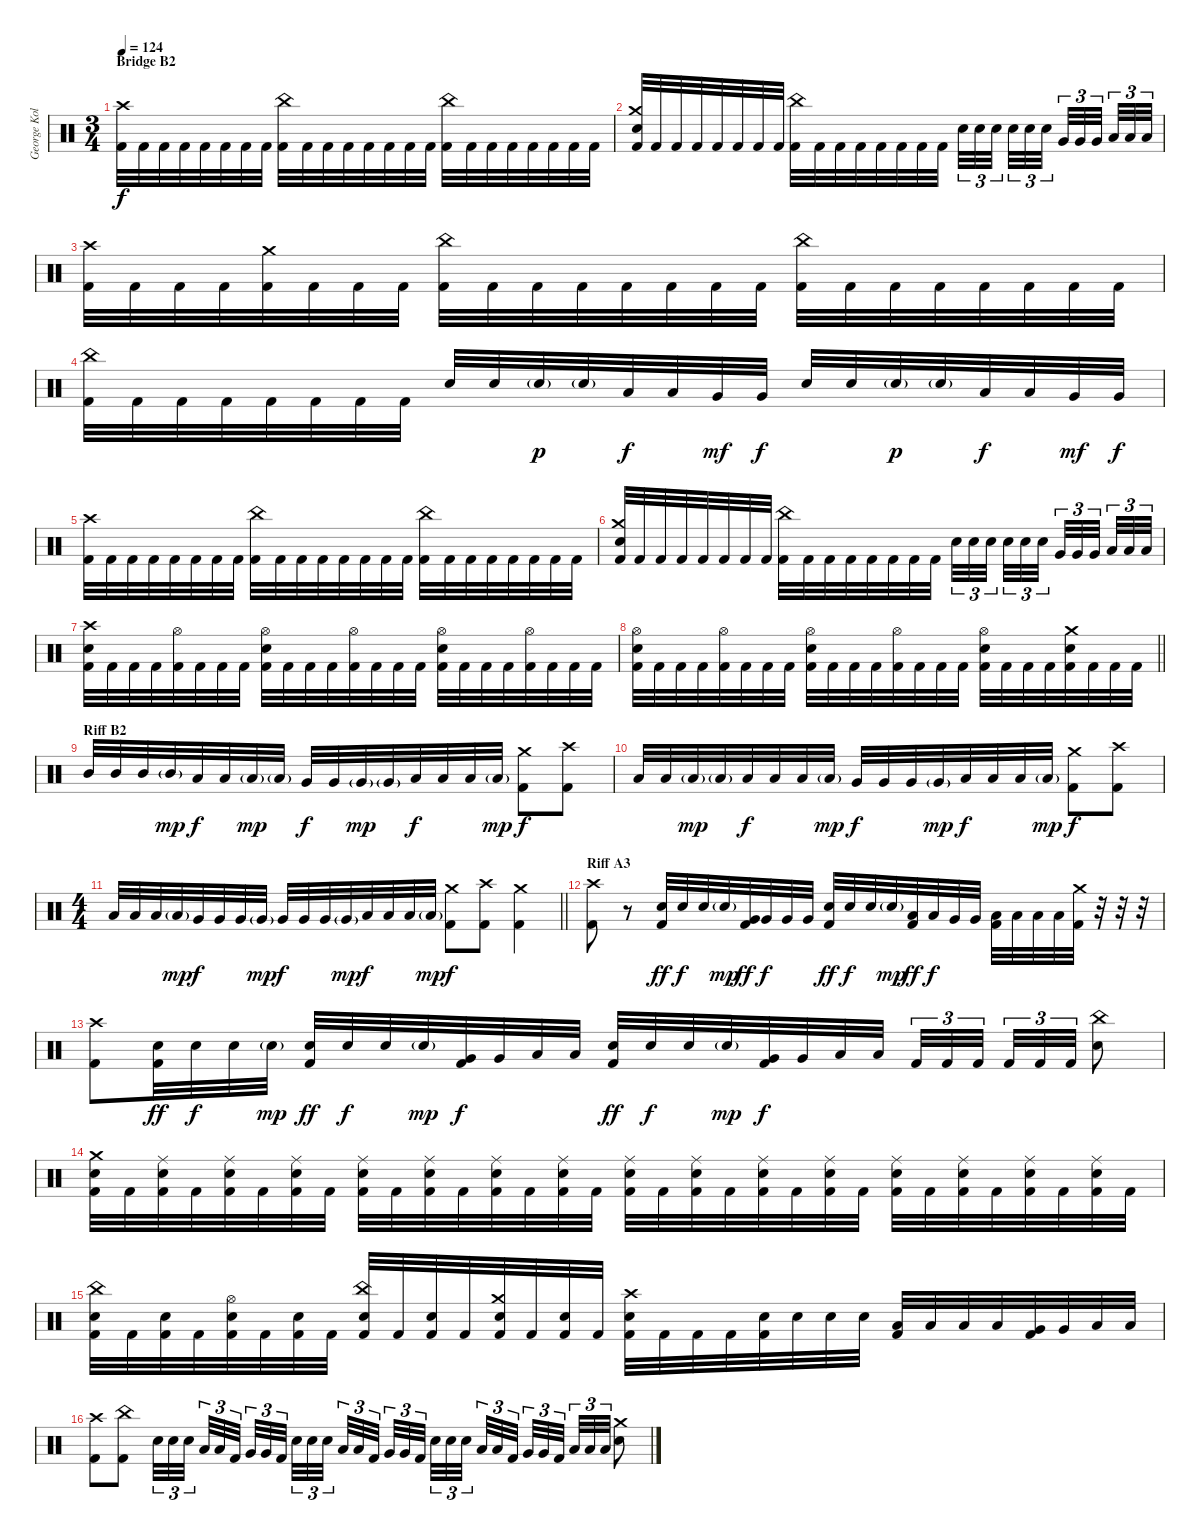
\track ("George Kollias" "George Kol") {instrument percussion}
\staff {score}
\articulation defaults
\ts (3 4)
\section ("" "Bridge B2")
\tempo 124
\clef neutral
\ks c
("Crash high (hit)" "Kick (hit) 2").32{dy f} "Kick (hit) 2".32 "Kick (hit) 2".32 "Kick (hit) 2".32 "Kick (hit) 2".32 "Kick (hit) 2".32 "Kick (hit) 2".32 "Kick (hit) 2".32 ("China (hit)" "Kick (hit) 2").32 "Kick (hit) 2".32 "Kick (hit) 2".32 "Kick (hit) 2".32 "Kick (hit) 2".32 "Kick (hit) 2".32 "Kick (hit) 2".32 "Kick (hit) 2".32 ("China (hit)" "Kick (hit) 2").32 "Kick (hit) 2".32 "Kick (hit) 2".32 "Kick (hit) 2".32 "Kick (hit) 2".32 "Kick (hit) 2".32 "Kick (hit) 2".32 "Kick (hit) 2".32 |
("Crash medium (hit)" "Electric Snare (hit)" "Kick (hit) 2").32 "Kick (hit) 2".32 "Kick (hit) 2".32 "Kick (hit) 2".32 "Kick (hit) 2".32 "Kick (hit) 2".32 "Kick (hit) 2".32 "Kick (hit) 2".32 ("China (hit)" "Kick (hit) 2").32 "Kick (hit) 2".32 "Kick (hit) 2".32 "Kick (hit) 2".32 "Kick (hit) 2".32 "Kick (hit) 2".32 "Kick (hit) 2".32 "Kick (hit) 2".32 "Electric Snare (hit)".32{tu (3 2)} "Electric Snare (hit)".32{tu (3 2)} "Electric Snare (hit)".32{tu (3 2) beam splitsecondary} "Electric Snare (hit)".32{tu (3 2)} "Electric Snare (hit)".32{tu (3 2)} "Electric Snare (hit)".32{tu (3 2) beam splitsecondary} "Very Low Tom (hit)".32{tu (3 2)} "Very Low Tom (hit)".32{tu (3 2)} "Very Low Tom (hit)".32{tu (3 2) beam splitsecondary} "Low Floor Tom (hit)".32{tu (3 2)} "Low Floor Tom (hit)".32{tu (3 2)} "Low Floor Tom (hit)".32{tu (3 2)} |
("Crash high (hit)" "Kick (hit) 2").32 "Kick (hit) 2".32 "Kick (hit) 2".32 "Kick (hit) 2".32 ("Crash medium (hit)" "Kick (hit) 2").32 "Kick (hit) 2".32 "Kick (hit) 2".32 "Kick (hit) 2".32 ("China (hit)" "Kick (hit) 2").32 "Kick (hit) 2".32 "Kick (hit) 2".32 "Kick (hit) 2".32 "Kick (hit) 2".32 "Kick (hit) 2".32 "Kick (hit) 2".32 "Kick (hit) 2".32 ("China (hit)" "Kick (hit) 2").32 "Kick (hit) 2".32 "Kick (hit) 2".32 "Kick (hit) 2".32 "Kick (hit) 2".32 "Kick (hit) 2".32 "Kick (hit) 2".32 "Kick (hit) 2".32 |
("China (hit)" "Kick (hit) 2").32 "Kick (hit) 2".32 "Kick (hit) 2".32 "Kick (hit) 2".32 "Kick (hit) 2".32 "Kick (hit) 2".32 "Kick (hit) 2".32 "Kick (hit) 2".32 "Electric Snare (hit)".32 "Electric Snare (hit)".32 "Electric Snare (hit)"{g}.32{dy p} "Electric Snare (hit)"{g}.32 "Low Tom (hit)".32{dy f} "Low Tom (hit)".32 "Very Low Tom (hit)".32{dy mf} "Very Low Tom (hit)".32{dy f} "Electric Snare (hit)".32 "Electric Snare (hit)".32 "Electric Snare (hit)"{g}.32{dy p} "Electric Snare (hit)"{g}.32 "Low Tom (hit)".32{dy f} "Low Tom (hit)".32 "Very Low Tom (hit)".32{dy mf} "Very Low Tom (hit)".32{dy f} |
("Crash high (hit)" "Kick (hit) 2").32 "Kick (hit) 2".32 "Kick (hit) 2".32 "Kick (hit) 2".32 "Kick (hit) 2".32 "Kick (hit) 2".32 "Kick (hit) 2".32 "Kick (hit) 2".32 ("China (hit)" "Kick (hit) 2").32 "Kick (hit) 2".32 "Kick (hit) 2".32 "Kick (hit) 2".32 "Kick (hit) 2".32 "Kick (hit) 2".32 "Kick (hit) 2".32 "Kick (hit) 2".32 ("China (hit)" "Kick (hit) 2").32 "Kick (hit) 2".32 "Kick (hit) 2".32 "Kick (hit) 2".32 "Kick (hit) 2".32 "Kick (hit) 2".32 "Kick (hit) 2".32 "Kick (hit) 2".32 |
("Crash medium (hit)" "Electric Snare (hit)" "Kick (hit) 2").32 "Kick (hit) 2".32 "Kick (hit) 2".32 "Kick (hit) 2".32 "Kick (hit) 2".32 "Kick (hit) 2".32 "Kick (hit) 2".32 "Kick (hit) 2".32 ("China (hit)" "Kick (hit) 2").32 "Kick (hit) 2".32 "Kick (hit) 2".32 "Kick (hit) 2".32 "Kick (hit) 2".32 "Kick (hit) 2".32 "Kick (hit) 2".32 "Kick (hit) 2".32 "Electric Snare (hit)".32{tu (3 2)} "Electric Snare (hit)".32{tu (3 2)} "Electric Snare (hit)".32{tu (3 2) beam splitsecondary} "Electric Snare (hit)".32{tu (3 2)} "Electric Snare (hit)".32{tu (3 2)} "Electric Snare (hit)".32{tu (3 2) beam splitsecondary} "Very Low Tom (hit)".32{tu (3 2)} "Very Low Tom (hit)".32{tu (3 2)} "Very Low Tom (hit)".32{tu (3 2) beam splitsecondary} "Low Floor Tom (hit)".32{tu (3 2)} "Low Floor Tom (hit)".32{tu (3 2)} "Low Floor Tom (hit)".32{tu (3 2)} |
("Crash high (hit)" "Electric Snare (hit)" "Kick (hit) 2").32 "Kick (hit) 2".32 "Kick (hit) 2".32 "Kick (hit) 2".32 ("Hi-Hat (open)" "Kick (hit) 2").32 "Kick (hit) 2".32 "Kick (hit) 2".32 "Kick (hit) 2".32 ("Hi-Hat (open)" "Electric Snare (hit)" "Kick (hit) 2").32 "Kick (hit) 2".32 "Kick (hit) 2".32 "Kick (hit) 2".32 ("Hi-Hat (open)" "Kick (hit) 2").32 "Kick (hit) 2".32 "Kick (hit) 2".32 "Kick (hit) 2".32 ("Hi-Hat (open)" "Electric Snare (hit)" "Kick (hit) 2").32 "Kick (hit) 2".32 "Kick (hit) 2".32 "Kick (hit) 2".32 ("Hi-Hat (open)" "Kick (hit) 2").32 "Kick (hit) 2".32 "Kick (hit) 2".32 "Kick (hit) 2".32 |
\barLineRight lightlight
("Hi-Hat (open)" "Electric Snare (hit)" "Kick (hit) 2").32 "Kick (hit) 2".32 "Kick (hit) 2".32 "Kick (hit) 2".32 ("Hi-Hat (open)" "Kick (hit) 2").32 "Kick (hit) 2".32 "Kick (hit) 2".32 "Kick (hit) 2".32 ("Hi-Hat (open)" "Electric Snare (hit)" "Kick (hit) 2").32 "Kick (hit) 2".32 "Kick (hit) 2".32 "Kick (hit) 2".32 ("Hi-Hat (open)" "Kick (hit) 2").32 "Kick (hit) 2".32 "Kick (hit) 2".32 "Kick (hit) 2".32 ("Hi-Hat (open)" "Electric Snare (hit)" "Kick (hit) 2").32 "Kick (hit) 2".32 "Kick (hit) 2".32 "Kick (hit) 2".32 ("Crash medium (hit)" "Electric Snare (hit)" "Kick (hit) 2").32 "Kick (hit) 2".32 "Kick (hit) 2".32 "Kick (hit) 2".32 |
\section ("" "Riff B2")
"Mid Tom (hit)".32 "Mid Tom (hit)".32 "Mid Tom (hit)".32 "Mid Tom (hit)"{g}.32{dy mp} "Low Tom (hit)".32{dy f} "Low Tom (hit)".32 "Low Tom (hit)"{g}.32{dy mp} "Low Tom (hit)"{g}.32 "Very Low Tom (hit)".32{dy f} "Very Low Tom (hit)".32 "Very Low Tom (hit)"{g}.32{dy mp} "Very Low Tom (hit)"{g}.32 "Low Floor Tom (hit)".32{dy f} "Low Floor Tom (hit)".32 "Low Floor Tom (hit)".32 "Low Floor Tom (hit)"{g}.32{dy mp} ("Crash medium (hit)" "Kick (hit) 2").8{dy f} ("Crash high (hit)" "Kick (hit) 2").8 |
"Low Tom (hit)".32 "Low Tom (hit)".32 "Low Tom (hit)"{g}.32{dy mp} "Low Tom (hit)"{g}.32 "Low Tom (hit)".32{dy f} "Low Tom (hit)".32 "Low Tom (hit)".32 "Low Tom (hit)"{g}.32{dy mp} "Very Low Tom (hit)".32{dy f} "Very Low Tom (hit)".32 "Very Low Tom (hit)".32 "Very Low Tom (hit)"{g}.32{dy mp} "Low Floor Tom (hit)".32{dy f} "Low Floor Tom (hit)".32 "Low Floor Tom (hit)".32 "Low Floor Tom (hit)"{g}.32{dy mp} ("Crash medium (hit)" "Kick (hit) 2").8{dy f} ("Crash high (hit)" "Kick (hit) 2").8 |
\ts (4 4)
\barLineRight lightlight "Low Tom (hit)".32 "Low Tom (hit)".32 "Low Tom (hit)".32 "Low Tom (hit)"{g}.32{dy mp} "Very Low Tom (hit)".32{dy f} "Very Low Tom (hit)".32 "Very Low Tom (hit)".32 "Very Low Tom (hit)"{g}.32{dy mp} "Very Low Tom (hit)".32{dy f} "Very Low Tom (hit)".32 "Very Low Tom (hit)".32 "Very Low Tom (hit)"{g}.32{dy mp} "Low Floor Tom (hit)".32{dy f} "Low Floor Tom (hit)".32 "Low Floor Tom (hit)".32 "Low Floor Tom (hit)"{g}.32{dy mp}
("Crash medium (hit)" "Kick (hit) 2").8{dy f} ("Crash high (hit)" "Kick (hit) 2").8 ("Crash medium (hit)" "Kick (hit) 2").4 |
\section ("" "Riff A3")
("Crash high (hit)" "Kick (hit) 2").8 r.8 ("Electric Snare (hit)" "Kick (hit) 2").32{dy ff} "Electric Snare (hit)".32{dy f} "Electric Snare (hit)".32 "Electric Snare (hit)"{g}.32{dy mp} ("Very Low Tom (hit)" "Kick (hit) 2").32{dy ff} "Very Low Tom (hit)".32{dy f} "Very Low Tom (hit)".32 "Very Low Tom (hit)".32 ("Electric Snare (hit)" "Kick (hit) 2").32{dy ff} "Electric Snare (hit)".32{dy f} "Electric Snare (hit)".32 "Electric Snare (hit)"{g}.32{dy mp} ("Low Tom (hit)" "Kick (hit) 2").32{dy ff} "Low Tom (hit)".32{dy f} "Very Low Tom (hit)".32 "Very Low Tom (hit)".32 ("Low Floor Tom (hit)" "Kick (hit) 2").32 "Low Floor Tom (hit)".32 "Low Floor Tom (hit)".32 "Low Floor Tom (hit)".32 ("Crash medium (hit)" "Kick (hit) 2").32 r.32 r.32 r.32 |
("Crash high (hit)" "Kick (hit) 2").8 ("Electric Snare (hit)" "Kick (hit) 2").32{dy ff} "Electric Snare (hit)".32{dy f} "Electric Snare (hit)".32 "Electric Snare (hit)"{g}.32{dy mp} ("Electric Snare (hit)" "Kick (hit) 2").32{dy ff} "Electric Snare (hit)".32{dy f} "Electric Snare (hit)".32 "Electric Snare (hit)"{g}.32{dy mp} ("Very Low Tom (hit)" "Kick (hit) 2").32{dy f} "Very Low Tom (hit)".32 "Low Floor Tom (hit)".32 "Low Floor Tom (hit)".32 ("Electric Snare (hit)" "Kick (hit) 2").32{dy ff} "Electric Snare (hit)".32{dy f} "Electric Snare (hit)".32 "Electric Snare (hit)"{g}.32{dy mp} ("Very Low Tom (hit)" "Kick (hit) 2").32{dy f} "Very Low Tom (hit)".32 "Low Floor Tom (hit)".32 "Low Floor Tom (hit)".32 "Kick (hit) 2".32{tu (3 2)} "Kick (hit) 2".32{tu (3 2)} "Kick (hit) 2".32{tu (3 2) beam splitsecondary} "Kick (hit) 2".32{tu (3 2)} "Kick (hit) 2".32{tu (3 2)} "Kick (hit) 2".32{tu (3 2)} ("China (hit)" "Electric Snare (hit)").8 |
("Crash medium (hit)" "Electric Snare (hit)" "Kick (hit) 2").32 "Kick (hit) 2".32 ("Ride (middle)" "Electric Snare (hit)" "Kick (hit) 2").32 "Kick (hit) 2".32 ("Ride (middle)" "Electric Snare (hit)" "Kick (hit) 2").32 "Kick (hit) 2".32 ("Ride (middle)" "Electric Snare (hit)" "Kick (hit) 2").32 "Kick (hit) 2".32 ("Ride (middle)" "Electric Snare (hit)" "Kick (hit) 2").32 "Kick (hit) 2".32 ("Ride (middle)" "Electric Snare (hit)" "Kick (hit) 2").32 "Kick (hit) 2".32 ("Ride (middle)" "Electric Snare (hit)" "Kick (hit) 2").32 "Kick (hit) 2".32 ("Ride (middle)" "Electric Snare (hit)" "Kick (hit) 2").32 "Kick (hit) 2".32 ("Ride (middle)" "Electric Snare (hit)" "Kick (hit) 2").32 "Kick (hit) 2".32 ("Ride (middle)" "Electric Snare (hit)" "Kick (hit) 2").32 "Kick (hit) 2".32 ("Ride (middle)" "Electric Snare (hit)" "Kick (hit) 2").32 "Kick (hit) 2".32 ("Ride (middle)" "Electric Snare (hit)" "Kick (hit) 2").32 "Kick (hit) 2".32 ("Ride (middle)" "Electric Snare (hit)" "Kick (hit) 2").32 "Kick (hit) 2".32 ("Ride (middle)" "Electric Snare (hit)" "Kick (hit) 2").32 "Kick (hit) 2".32 ("Ride (middle)" "Electric Snare (hit)" "Kick (hit) 2").32 "Kick (hit) 2".32 ("Ride (middle)" "Electric Snare (hit)" "Kick (hit) 2").32 "Kick (hit) 2".32 |
("China (hit)" "Electric Snare (hit)" "Kick (hit) 2").32 "Kick (hit) 2".32 ("Electric Snare (hit)" "Kick (hit) 2").32 "Kick (hit) 2".32 ("Hi-Hat (open)" "Electric Snare (hit)" "Kick (hit) 2").32 "Kick (hit) 2".32 ("Electric Snare (hit)" "Kick (hit) 2").32 "Kick (hit) 2".32 ("China (hit)" "Electric Snare (hit)" "Kick (hit) 2").32 "Kick (hit) 2".32 ("Electric Snare (hit)" "Kick (hit) 2").32 "Kick (hit) 2".32 ("Crash medium (hit)" "Electric Snare (hit)" "Kick (hit) 2").32 "Kick (hit) 2".32 ("Electric Snare (hit)" "Kick (hit) 2").32 "Kick (hit) 2".32 ("Crash high (hit)" "Electric Snare (hit)" "Kick (hit) 2").32 "Kick (hit) 2".32 "Kick (hit) 2".32 "Kick (hit) 2".32 ("Electric Snare (hit)" "Kick (hit) 2").32 "Electric Snare (hit)".32 "Electric Snare (hit)".32 "Electric Snare (hit)".32 ("Low Tom (hit)" "Kick (hit) 2").32 "Low Tom (hit)".32 "Low Tom (hit)".32 "Low Tom (hit)".32 ("Very Low Tom (hit)" "Kick (hit) 2").32 "Very Low Tom (hit)".32 "Low Floor Tom (hit)".32 "Low Floor Tom (hit)".32 |
("Crash high (hit)" "Kick (hit) 2").8 ("China (hit)" "Kick (hit) 2").8 "Electric Snare (hit)".32{tu (3 2)} "Electric Snare (hit)".32{tu (3 2)} "Electric Snare (hit)".32{tu (3 2) beam splitsecondary} "Low Tom (hit)".32{tu (3 2)} "Low Tom (hit)".32{tu (3 2)} "Kick (hit) 2".32{tu (3 2) beam splitsecondary} "Very Low Tom (hit)".32{tu (3 2)} "Very Low Tom (hit)".32{tu (3 2)} "Kick (hit) 2".32{tu (3 2) beam splitsecondary} "Electric Snare (hit)".32{tu (3 2)} "Electric Snare (hit)".32{tu (3 2)} "Electric Snare (hit)".32{tu (3 2)} "Low Tom (hit)".32{tu (3 2)} "Low Tom (hit)".32{tu (3 2)} "Kick (hit) 2".32{tu (3 2) beam splitsecondary} "Very Low Tom (hit)".32{tu (3 2)} "Very Low Tom (hit)".32{tu (3 2)} "Kick (hit) 2".32{tu (3 2) beam splitsecondary} "Electric Snare (hit)".32{tu (3 2)} "Electric Snare (hit)".32{tu (3 2)} "Electric Snare (hit)".32{tu (3 2) beam splitsecondary} "Low Tom (hit)".32{tu (3 2)} "Low Tom (hit)".32{tu (3 2)} "Kick (hit) 2".32{tu (3 2)} "Very Low Tom (hit)".32{tu (3 2)} "Very Low Tom (hit)".32{tu (3 2)} "Kick (hit) 2".32{tu (3 2) beam splitsecondary} "Low Floor Tom (hit)".32{tu (3 2)} "Low Floor Tom (hit)".32{tu (3 2)} "Low Floor Tom (hit)".32{tu (3 2)} ("Crash medium (hit)" "Electric Snare (hit)").8
